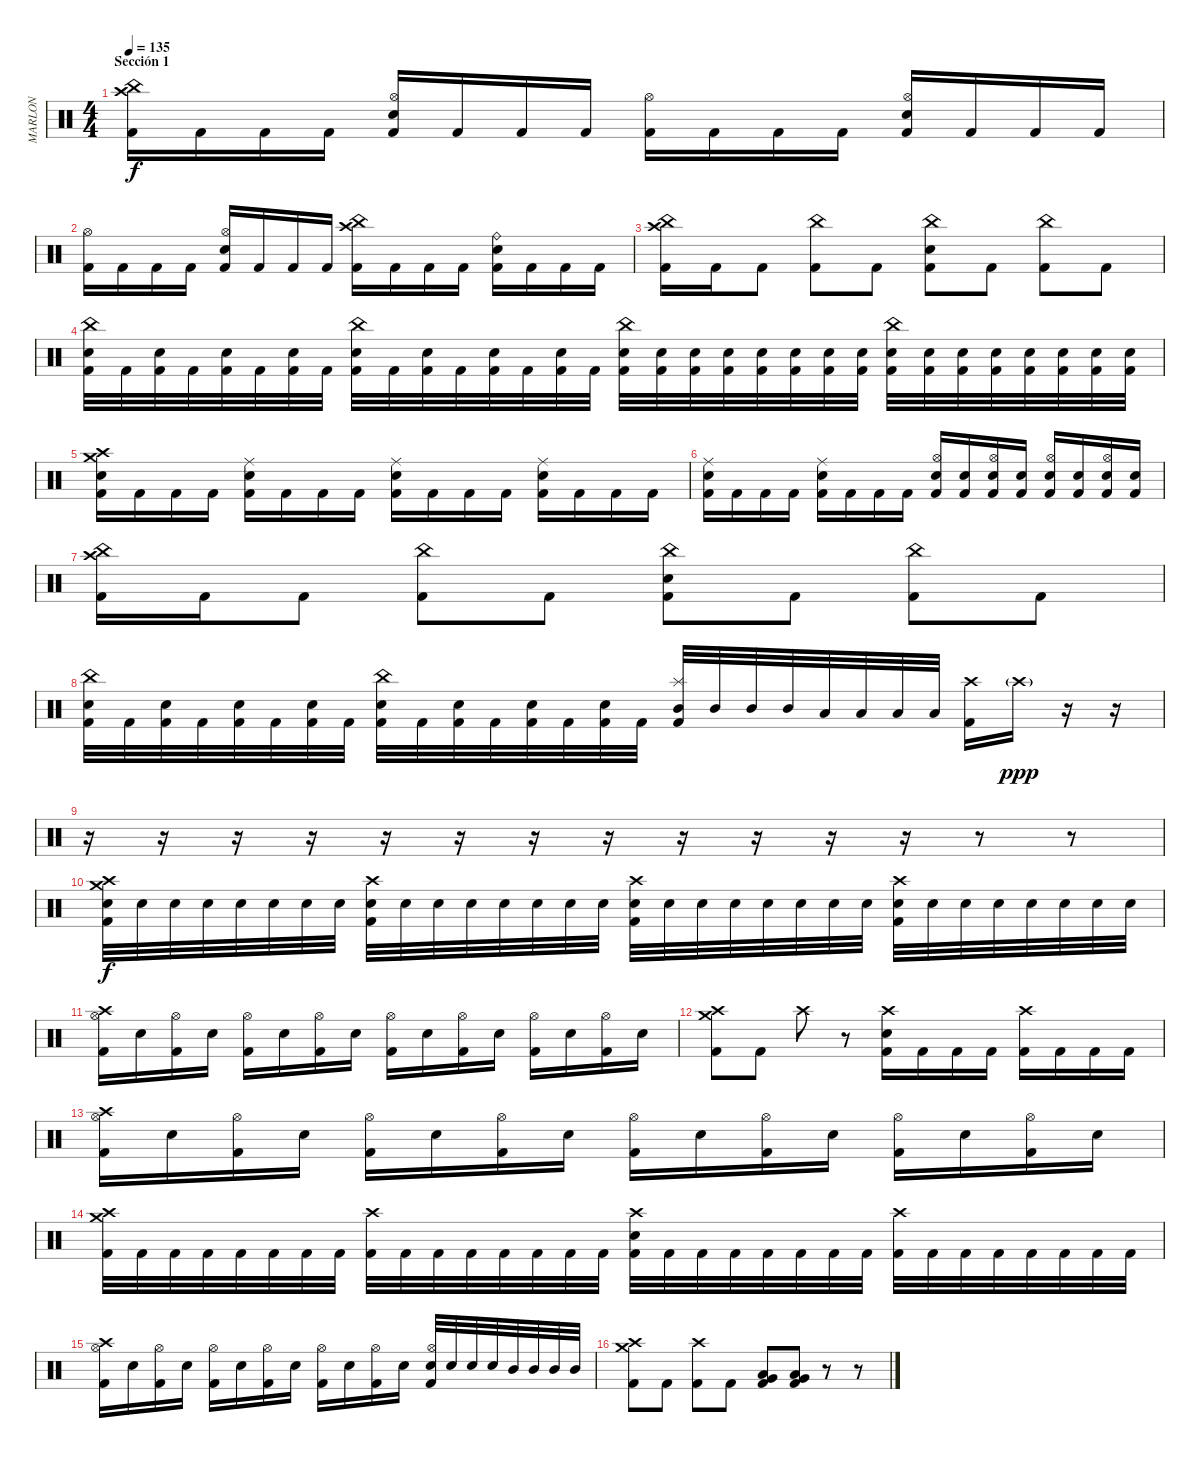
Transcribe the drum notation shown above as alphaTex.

\track ("MARLON" "MARLON") {instrument percussion}
\staff {score}
\articulation defaults
\ts (4 4)
\section ("" "Sección 1")
\tempo 135
\clef neutral
\ks c
("Crash high (hit)" "China (hit)" "Kick (hit) 2").16{dy f} "Kick (hit) 2".16 "Kick (hit) 2".16 "Kick (hit) 2".16 ("Hi-Hat (open)" "Electric Snare (hit)" "Kick (hit) 2").16 "Kick (hit) 2".16 "Kick (hit) 2".16 "Kick (hit) 2".16 ("Hi-Hat (open)" "Kick (hit) 2").16 "Kick (hit) 2".16 "Kick (hit) 2".16 "Kick (hit) 2".16 ("Hi-Hat (open)" "Electric Snare (hit)" "Kick (hit) 2").16 "Kick (hit) 2".16 "Kick (hit) 2".16 "Kick (hit) 2".16 |
("Hi-Hat (open)" "Kick (hit) 2").16 "Kick (hit) 2".16 "Kick (hit) 2".16 "Kick (hit) 2".16 ("Hi-Hat (open)" "Electric Snare (hit)" "Kick (hit) 2").16 "Kick (hit) 2".16 "Kick (hit) 2".16 "Kick (hit) 2".16 ("China (hit)" "Crash high (hit)" "Kick (hit) 2").16 "Kick (hit) 2".16 "Kick (hit) 2".16 "Kick (hit) 2".16 ("Ride (bell)" "Electric Snare (hit)" "Kick (hit) 2").16 "Kick (hit) 2".16 "Kick (hit) 2".16 "Kick (hit) 2".16 |
("Crash high (hit)" "China (hit)" "Kick (hit) 2").16 "Kick (hit) 2".16 "Kick (hit) 2".8 ("China (hit)" "Kick (hit) 2").8 "Kick (hit) 2".8 ("China (hit)" "Electric Snare (hit)" "Kick (hit) 2").8 "Kick (hit) 2".8 ("China (hit)" "Kick (hit) 2").8 "Kick (hit) 2".8 |
("China (hit)" "Electric Snare (hit)" "Kick (hit) 2").32 "Kick (hit) 2".32 ("Electric Snare (hit)" "Kick (hit) 2").32 "Kick (hit) 2".32 ("Electric Snare (hit)" "Kick (hit) 2").32 "Kick (hit) 2".32 ("Electric Snare (hit)" "Kick (hit) 2").32 "Kick (hit) 2".32 ("China (hit)" "Electric Snare (hit)" "Kick (hit) 2").32 "Kick (hit) 2".32 ("Electric Snare (hit)" "Kick (hit) 2").32 "Kick (hit) 2".32 ("Electric Snare (hit)" "Kick (hit) 2").32 "Kick (hit) 2".32 ("Electric Snare (hit)" "Kick (hit) 2").32 "Kick (hit) 2".32 ("China (hit)" "Electric Snare (hit)" "Kick (hit) 2").32 ("Electric Snare (hit)" "Kick (hit) 2").32 ("Electric Snare (hit)" "Kick (hit) 2").32 ("Electric Snare (hit)" "Kick (hit) 2").32 ("Electric Snare (hit)" "Kick (hit) 2").32 ("Electric Snare (hit)" "Kick (hit) 2").32 ("Electric Snare (hit)" "Kick (hit) 2").32 ("Electric Snare (hit)" "Kick (hit) 2").32 ("China (hit)" "Electric Snare (hit)" "Kick (hit) 2").32 ("Electric Snare (hit)" "Kick (hit) 2").32 ("Electric Snare (hit)" "Kick (hit) 2").32 ("Electric Snare (hit)" "Kick (hit) 2").32 ("Electric Snare (hit)" "Kick (hit) 2").32 ("Electric Snare (hit)" "Kick (hit) 2").32 ("Electric Snare (hit)" "Kick (hit) 2").32 ("Electric Snare (hit)" "Kick (hit) 2").32 |
("Crash high (hit)" "Crash medium (hit)" "Electric Snare (hit)" "Kick (hit) 2").16 "Kick (hit) 2".16 "Kick (hit) 2".16 "Kick (hit) 2".16 ("Ride (middle)" "Electric Snare (hit)" "Kick (hit) 2").16 "Kick (hit) 2".16 "Kick (hit) 2".16 "Kick (hit) 2".16 ("Ride (middle)" "Electric Snare (hit)" "Kick (hit) 2").16 "Kick (hit) 2".16 "Kick (hit) 2".16 "Kick (hit) 2".16 ("Ride (middle)" "Electric Snare (hit)" "Kick (hit) 2").16 "Kick (hit) 2".16 "Kick (hit) 2".16 "Kick (hit) 2".16 |
("Ride (middle)" "Electric Snare (hit)" "Kick (hit) 2").16 "Kick (hit) 2".16 "Kick (hit) 2".16 "Kick (hit) 2".16 ("Ride (middle)" "Electric Snare (hit)" "Kick (hit) 2").16 "Kick (hit) 2".16 "Kick (hit) 2".16 "Kick (hit) 2".16 ("Hi-Hat (open)" "Electric Snare (hit)" "Kick (hit) 2").16 ("Electric Snare (hit)" "Kick (hit) 2").16 ("Hi-Hat (open)" "Electric Snare (hit)" "Kick (hit) 2").16 ("Electric Snare (hit)" "Kick (hit) 2").16 ("Hi-Hat (open)" "Electric Snare (hit)" "Kick (hit) 2").16 ("Electric Snare (hit)" "Kick (hit) 2").16 ("Hi-Hat (open)" "Electric Snare (hit)" "Kick (hit) 2").16 ("Electric Snare (hit)" "Kick (hit) 2").16 |
("Crash high (hit)" "China (hit)" "Kick (hit) 2").16 "Kick (hit) 2".16 "Kick (hit) 2".8 ("China (hit)" "Kick (hit) 2").8 "Kick (hit) 2".8 ("China (hit)" "Electric Snare (hit)" "Kick (hit) 2").8 "Kick (hit) 2".8 ("China (hit)" "Kick (hit) 2").8 "Kick (hit) 2".8 |
("China (hit)" "Electric Snare (hit)" "Kick (hit) 2").32 "Kick (hit) 2".32 ("Electric Snare (hit)" "Kick (hit) 2").32 "Kick (hit) 2".32 ("Electric Snare (hit)" "Kick (hit) 2").32 "Kick (hit) 2".32 ("Electric Snare (hit)" "Kick (hit) 2").32 "Kick (hit) 2".32 ("China (hit)" "Electric Snare (hit)" "Kick (hit) 2").32 "Kick (hit) 2".32 ("Electric Snare (hit)" "Kick (hit) 2").32 "Kick (hit) 2".32 ("Electric Snare (hit)" "Kick (hit) 2").32 "Kick (hit) 2".32 ("Electric Snare (hit)" "Kick (hit) 2").32 "Kick (hit) 2".32 ("Splash (hit)" "Mid Tom (hit)" "Kick (hit) 2").32 "Mid Tom (hit)".32 "Mid Tom (hit)".32 "Mid Tom (hit)".32 "Low Tom (hit)".32 "Low Tom (hit)".32 "Low Tom (hit)".32 "Low Tom (hit)".32 ("Crash high (hit)" "Kick (hit) 2").16 "Crash high (hit)"{g}.16{dy ppp} r.16 r.16 |
r.16 r.16 r.16 r.16 r.16 r.16 r.16 r.16 r.16 r.16 r.16 r.16 r.8 r.8 |
("Crash high (hit)" "Crash medium (hit)" "Electric Snare (hit)" "Kick (hit) 2").32{dy f} "Electric Snare (hit)".32 "Electric Snare (hit)".32 "Electric Snare (hit)".32 "Electric Snare (hit)".32 "Electric Snare (hit)".32 "Electric Snare (hit)".32 "Electric Snare (hit)".32 ("Crash high (hit)" "Electric Snare (hit)" "Kick (hit) 2").32 "Electric Snare (hit)".32 "Electric Snare (hit)".32 "Electric Snare (hit)".32 "Electric Snare (hit)".32 "Electric Snare (hit)".32 "Electric Snare (hit)".32 "Electric Snare (hit)".32 ("Crash high (hit)" "Electric Snare (hit)" "Kick (hit) 2").32 "Electric Snare (hit)".32 "Electric Snare (hit)".32 "Electric Snare (hit)".32 "Electric Snare (hit)".32 "Electric Snare (hit)".32 "Electric Snare (hit)".32 "Electric Snare (hit)".32 ("Crash high (hit)" "Electric Snare (hit)" "Kick (hit) 2").32 "Electric Snare (hit)".32 "Electric Snare (hit)".32 "Electric Snare (hit)".32 "Electric Snare (hit)".32 "Electric Snare (hit)".32 "Electric Snare (hit)".32 "Electric Snare (hit)".32 |
("Crash high (hit)" "Hi-Hat (open)" "Kick (hit) 2").16 "Electric Snare (hit)".16 ("Hi-Hat (open)" "Kick (hit) 2").16 "Electric Snare (hit)".16 ("Hi-Hat (open)" "Kick (hit) 2").16 "Electric Snare (hit)".16 ("Hi-Hat (open)" "Kick (hit) 2").16 "Electric Snare (hit)".16 ("Hi-Hat (open)" "Kick (hit) 2").16 "Electric Snare (hit)".16 ("Hi-Hat (open)" "Kick (hit) 2").16 "Electric Snare (hit)".16 ("Hi-Hat (open)" "Kick (hit) 2").16 "Electric Snare (hit)".16 ("Hi-Hat (open)" "Kick (hit) 2").16 "Electric Snare (hit)".16 |
("Crash high (hit)" "Crash medium (hit)" "Kick (hit) 2").8 "Kick (hit) 2".8 "Crash high (hit)".8 r.8 ("Crash high (hit)" "Electric Snare (hit)" "Kick (hit) 2").16 "Kick (hit) 2".16 "Kick (hit) 2".16 "Kick (hit) 2".16 ("Crash high (hit)" "Kick (hit) 2").16 "Kick (hit) 2".16 "Kick (hit) 2".16 "Kick (hit) 2".16 |
("Crash high (hit)" "Hi-Hat (open)" "Kick (hit) 2").16 "Electric Snare (hit)".16 ("Hi-Hat (open)" "Kick (hit) 2").16 "Electric Snare (hit)".16 ("Hi-Hat (open)" "Kick (hit) 2").16 "Electric Snare (hit)".16 ("Hi-Hat (open)" "Kick (hit) 2").16 "Electric Snare (hit)".16 ("Hi-Hat (open)" "Kick (hit) 2").16 "Electric Snare (hit)".16 ("Hi-Hat (open)" "Kick (hit) 2").16 "Electric Snare (hit)".16 ("Hi-Hat (open)" "Kick (hit) 2").16 "Electric Snare (hit)".16 ("Hi-Hat (open)" "Kick (hit) 2").16 "Electric Snare (hit)".16 |
("Crash high (hit)" "Crash medium (hit)" "Kick (hit) 2").32 "Kick (hit) 2".32 "Kick (hit) 2".32 "Kick (hit) 2".32 "Kick (hit) 2".32 "Kick (hit) 2".32 "Kick (hit) 2".32 "Kick (hit) 2".32 ("Crash high (hit)" "Kick (hit) 2").32 "Kick (hit) 2".32 "Kick (hit) 2".32 "Kick (hit) 2".32 "Kick (hit) 2".32 "Kick (hit) 2".32 "Kick (hit) 2".32 "Kick (hit) 2".32 ("Crash high (hit)" "Electric Snare (hit)" "Kick (hit) 2").32 "Kick (hit) 2".32 "Kick (hit) 2".32 "Kick (hit) 2".32 "Kick (hit) 2".32 "Kick (hit) 2".32 "Kick (hit) 2".32 "Kick (hit) 2".32 ("Crash high (hit)" "Kick (hit) 2").32 "Kick (hit) 2".32 "Kick (hit) 2".32 "Kick (hit) 2".32 "Kick (hit) 2".32 "Kick (hit) 2".32 "Kick (hit) 2".32 "Kick (hit) 2".32 |
("Crash high (hit)" "Hi-Hat (open)" "Kick (hit) 2").16 "Electric Snare (hit)".16 ("Hi-Hat (open)" "Kick (hit) 2").16 "Electric Snare (hit)".16 ("Hi-Hat (open)" "Kick (hit) 2").16 "Electric Snare (hit)".16 ("Hi-Hat (open)" "Kick (hit) 2").16 "Electric Snare (hit)".16 ("Hi-Hat (open)" "Kick (hit) 2").16 "Electric Snare (hit)".16 ("Hi-Hat (open)" "Kick (hit) 2").16 "Electric Snare (hit)".16 ("Hi-Hat (open)" "Electric Snare (hit)" "Kick (hit) 2").32 "Electric Snare (hit)".32 "Electric Snare (hit)".32 "Electric Snare (hit)".32 "Mid Tom (hit)".32 "Mid Tom (hit)".32 "Mid Tom (hit)".32 "Mid Tom (hit)".32 |
("Crash high (hit)" "Crash medium (hit)" "Kick (hit) 2").8 "Kick (hit) 2".8 ("Crash high (hit)" "Kick (hit) 2").8 "Kick (hit) 2".8 ("Low Tom (hit)" "Very Low Tom (hit)" "Kick (hit) 2").8 ("Low Tom (hit)" "Very Low Tom (hit)" "Kick (hit) 2").8 r.8 r.8
